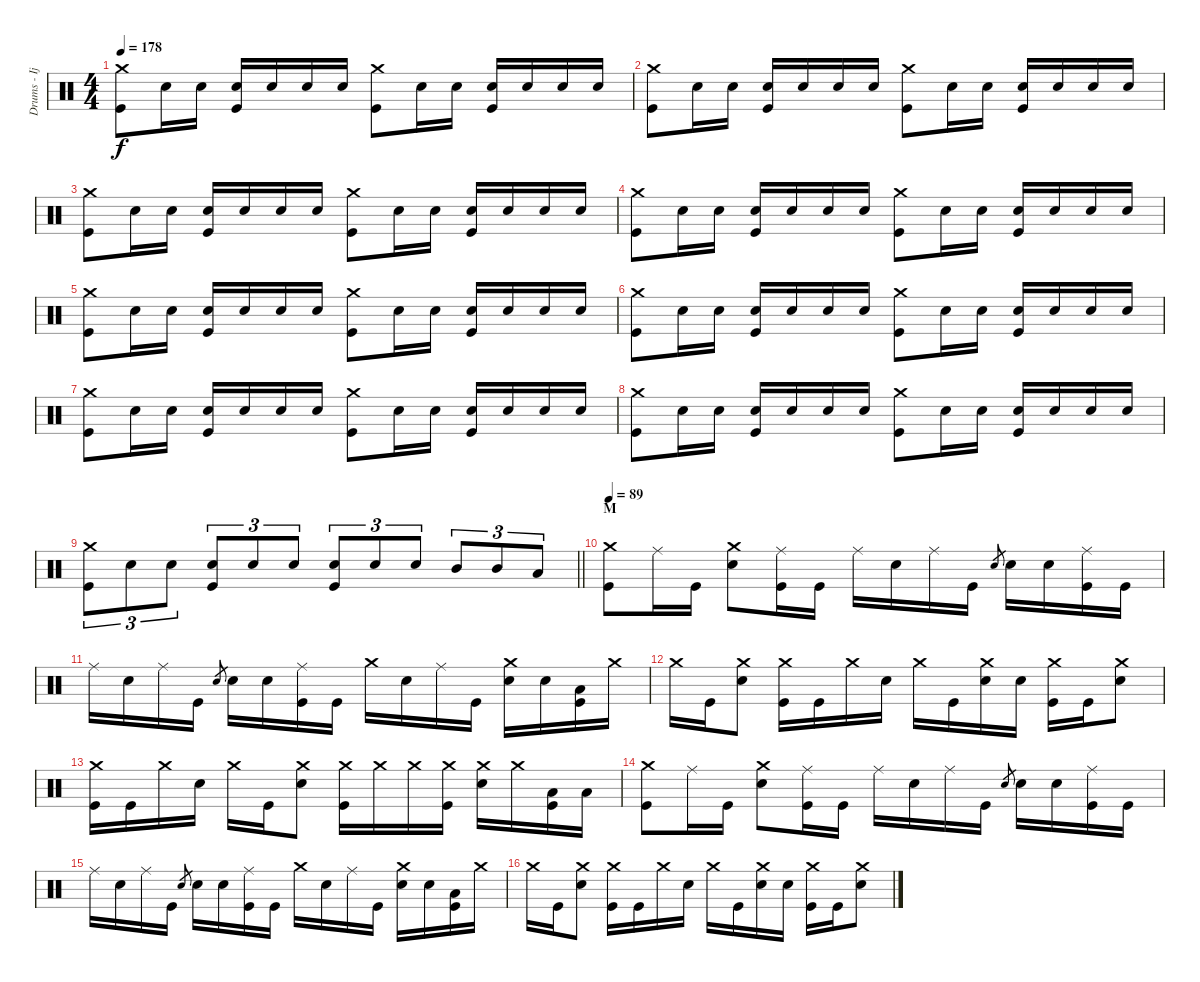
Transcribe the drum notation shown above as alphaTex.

\track ("Drums - Ijichi" "Drums - Ij") {instrument percussion}
\staff {score}
\articulation defaults
\ts (4 4)
\tempo 178
\clef neutral
\ks c
("Crash medium (hit)" "Kick (hit)").8{dy f} "Electric Snare (hit)".16 "Electric Snare (hit)".16 ("Electric Snare (hit)" "Kick (hit)").16 "Electric Snare (hit)".16 "Electric Snare (hit)".16 "Electric Snare (hit)".16 ("Crash medium (hit)" "Kick (hit)").8 "Electric Snare (hit)".16 "Electric Snare (hit)".16 ("Electric Snare (hit)" "Kick (hit)").16 "Electric Snare (hit)".16 "Electric Snare (hit)".16 "Electric Snare (hit)".16 |
("Crash medium (hit)" "Kick (hit)").8 "Electric Snare (hit)".16 "Electric Snare (hit)".16 ("Electric Snare (hit)" "Kick (hit)").16 "Electric Snare (hit)".16 "Electric Snare (hit)".16 "Electric Snare (hit)".16 ("Crash medium (hit)" "Kick (hit)").8 "Electric Snare (hit)".16 "Electric Snare (hit)".16 ("Electric Snare (hit)" "Kick (hit)").16 "Electric Snare (hit)".16 "Electric Snare (hit)".16 "Electric Snare (hit)".16 |
("Crash medium (hit)" "Kick (hit)").8 "Electric Snare (hit)".16 "Electric Snare (hit)".16 ("Electric Snare (hit)" "Kick (hit)").16 "Electric Snare (hit)".16 "Electric Snare (hit)".16 "Electric Snare (hit)".16 ("Crash medium (hit)" "Kick (hit)").8 "Electric Snare (hit)".16 "Electric Snare (hit)".16 ("Electric Snare (hit)" "Kick (hit)").16 "Electric Snare (hit)".16 "Electric Snare (hit)".16 "Electric Snare (hit)".16 |
("Crash medium (hit)" "Kick (hit)").8 "Electric Snare (hit)".16 "Electric Snare (hit)".16 ("Electric Snare (hit)" "Kick (hit)").16 "Electric Snare (hit)".16 "Electric Snare (hit)".16 "Electric Snare (hit)".16 ("Crash medium (hit)" "Kick (hit)").8 "Electric Snare (hit)".16 "Electric Snare (hit)".16 ("Electric Snare (hit)" "Kick (hit)").16 "Electric Snare (hit)".16 "Electric Snare (hit)".16 "Electric Snare (hit)".16 |
("Crash medium (hit)" "Kick (hit)").8 "Electric Snare (hit)".16 "Electric Snare (hit)".16 ("Electric Snare (hit)" "Kick (hit)").16 "Electric Snare (hit)".16 "Electric Snare (hit)".16 "Electric Snare (hit)".16 ("Crash medium (hit)" "Kick (hit)").8 "Electric Snare (hit)".16 "Electric Snare (hit)".16 ("Electric Snare (hit)" "Kick (hit)").16 "Electric Snare (hit)".16 "Electric Snare (hit)".16 "Electric Snare (hit)".16 |
("Crash medium (hit)" "Kick (hit)").8 "Electric Snare (hit)".16 "Electric Snare (hit)".16 ("Electric Snare (hit)" "Kick (hit)").16 "Electric Snare (hit)".16 "Electric Snare (hit)".16 "Electric Snare (hit)".16 ("Crash medium (hit)" "Kick (hit)").8 "Electric Snare (hit)".16 "Electric Snare (hit)".16 ("Electric Snare (hit)" "Kick (hit)").16 "Electric Snare (hit)".16 "Electric Snare (hit)".16 "Electric Snare (hit)".16 |
("Crash medium (hit)" "Kick (hit)").8 "Electric Snare (hit)".16 "Electric Snare (hit)".16 ("Electric Snare (hit)" "Kick (hit)").16 "Electric Snare (hit)".16 "Electric Snare (hit)".16 "Electric Snare (hit)".16 ("Crash medium (hit)" "Kick (hit)").8 "Electric Snare (hit)".16 "Electric Snare (hit)".16 ("Electric Snare (hit)" "Kick (hit)").16 "Electric Snare (hit)".16 "Electric Snare (hit)".16 "Electric Snare (hit)".16 |
("Crash medium (hit)" "Kick (hit)").8 "Electric Snare (hit)".16 "Electric Snare (hit)".16 ("Electric Snare (hit)" "Kick (hit)").16 "Electric Snare (hit)".16 "Electric Snare (hit)".16 "Electric Snare (hit)".16 ("Crash medium (hit)" "Kick (hit)").8 "Electric Snare (hit)".16 "Electric Snare (hit)".16 ("Electric Snare (hit)" "Kick (hit)").16 "Electric Snare (hit)".16 "Electric Snare (hit)".16 "Electric Snare (hit)".16 |
\barLineRight lightlight
("Crash medium (hit)" "Kick (hit)").8{tu (3 2)} "Electric Snare (hit)".8{tu (3 2)} "Electric Snare (hit)".8{tu (3 2)} ("Electric Snare (hit)" "Kick (hit)").8{tu (3 2)} "Electric Snare (hit)".8{tu (3 2)} "Electric Snare (hit)".8{tu (3 2)} ("Electric Snare (hit)" "Kick (hit)").8{tu (3 2)} "Electric Snare (hit)".8{tu (3 2)} "Electric Snare (hit)".8{tu (3 2)} "Mid Tom (hit)".8{tu (3 2)} "Mid Tom (hit)".8{tu (3 2)} "Low Tom (hit)".8{tu (3 2)} |
\section ("" "M")
\tempo 89
("Crash medium (hit)" "Kick (hit)").8 "Ride (middle)".16 "Kick (hit)".16 ("Crash medium (hit)" "Electric Snare (hit)").8 ("Ride (middle)" "Kick (hit)").16 "Kick (hit)".16 "Ride (middle)".16 "Electric Snare (hit)".16 "Ride (middle)".16 "Kick (hit)".16 "Electric Snare (hit)".8{gr} "Electric Snare (hit)".16 "Electric Snare (hit)".16 ("Ride (middle)" "Kick (hit)").16 "Kick (hit)".16 |
"Ride (middle)".16 "Electric Snare (hit)".16 "Ride (middle)".16 "Kick (hit)".16 "Electric Snare (hit)".8{gr} "Electric Snare (hit)".16 "Electric Snare (hit)".16 ("Ride (middle)" "Kick (hit)").16 "Kick (hit)".16 "Crash medium (hit)".16 "Electric Snare (hit)".16 "Ride (middle)".16 "Kick (hit)".16 ("Crash medium (hit)" "Electric Snare (hit)").16 "Electric Snare (hit)".16 ("Low Tom (hit)" "Kick (hit)").16 "Crash medium (hit)".16 |
"Crash medium (hit)".16 "Kick (hit)".16 ("Crash medium (hit)" "Electric Snare (hit)").8 ("Crash medium (hit)" "Kick (hit)").16 "Kick (hit)".16 "Crash medium (hit)".16 "Electric Snare (hit)".16 "Crash medium (hit)".16 "Kick (hit)".16 ("Crash medium (hit)" "Electric Snare (hit)").16 "Electric Snare (hit)".16 ("Crash medium (hit)" "Kick (hit)").16 "Kick (hit)".16 ("Crash medium (hit)" "Electric Snare (hit)").8 |
("Crash medium (hit)" "Kick (hit)").16 "Kick (hit)".16 "Crash medium (hit)".16 "Electric Snare (hit)".16 "Crash medium (hit)".16 "Kick (hit)".16 ("Crash medium (hit)" "Electric Snare (hit)").8 ("Crash medium (hit)" "Kick (hit)").16 "Crash medium (hit)".16 "Crash medium (hit)".16 ("Crash medium (hit)" "Kick (hit)").16 ("Crash medium (hit)" "Electric Snare (hit)").16 "Crash medium (hit)".16 ("Low Tom (hit)" "Kick (hit)").16 "Low Tom (hit)".16 |
("Crash medium (hit)" "Kick (hit)").8 "Ride (middle)".16 "Kick (hit)".16 ("Crash medium (hit)" "Electric Snare (hit)").8 ("Ride (middle)" "Kick (hit)").16 "Kick (hit)".16 "Ride (middle)".16 "Electric Snare (hit)".16 "Ride (middle)".16 "Kick (hit)".16 "Electric Snare (hit)".8{gr} "Electric Snare (hit)".16 "Electric Snare (hit)".16 ("Ride (middle)" "Kick (hit)").16 "Kick (hit)".16 |
"Ride (middle)".16 "Electric Snare (hit)".16 "Ride (middle)".16 "Kick (hit)".16 "Electric Snare (hit)".8{gr} "Electric Snare (hit)".16 "Electric Snare (hit)".16 ("Ride (middle)" "Kick (hit)").16 "Kick (hit)".16 "Crash medium (hit)".16 "Electric Snare (hit)".16 "Ride (middle)".16 "Kick (hit)".16 ("Crash medium (hit)" "Electric Snare (hit)").16 "Electric Snare (hit)".16 ("Low Tom (hit)" "Kick (hit)").16 "Crash medium (hit)".16 |
"Crash medium (hit)".16 "Kick (hit)".16 ("Crash medium (hit)" "Electric Snare (hit)").8 ("Crash medium (hit)" "Kick (hit)").16 "Kick (hit)".16 "Crash medium (hit)".16 "Electric Snare (hit)".16 "Crash medium (hit)".16 "Kick (hit)".16 ("Crash medium (hit)" "Electric Snare (hit)").16 "Electric Snare (hit)".16 ("Crash medium (hit)" "Kick (hit)").16 "Kick (hit)".16 ("Crash medium (hit)" "Electric Snare (hit)").8
